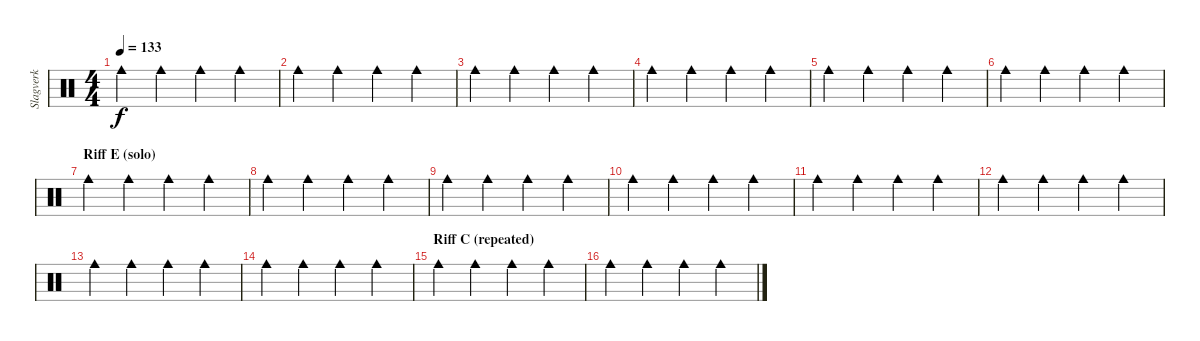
\track ("Slagverk" "Slagverk") {instrument percussion}
\staff {score}
\articulation defaults
\ts (4 4)
\tempo 133
\clef neutral
\ks c "Cowbell medium (hit)".4{dy f} "Cowbell medium (hit)".4 "Cowbell medium (hit)".4 "Cowbell medium (hit)".4
|
"Cowbell medium (hit)".4 "Cowbell medium (hit)".4 "Cowbell medium (hit)".4 "Cowbell medium (hit)".4 |
"Cowbell medium (hit)".4 "Cowbell medium (hit)".4 "Cowbell medium (hit)".4 "Cowbell medium (hit)".4 |
"Cowbell medium (hit)".4 "Cowbell medium (hit)".4 "Cowbell medium (hit)".4 "Cowbell medium (hit)".4 |
"Cowbell medium (hit)".4 "Cowbell medium (hit)".4 "Cowbell medium (hit)".4 "Cowbell medium (hit)".4 |
"Cowbell medium (hit)".4 "Cowbell medium (hit)".4 "Cowbell medium (hit)".4 "Cowbell medium (hit)".4 |
\section ("" "Riff E (solo)")
"Cowbell medium (hit)".4 "Cowbell medium (hit)".4 "Cowbell medium (hit)".4 "Cowbell medium (hit)".4 |
"Cowbell medium (hit)".4 "Cowbell medium (hit)".4 "Cowbell medium (hit)".4 "Cowbell medium (hit)".4 |
"Cowbell medium (hit)".4 "Cowbell medium (hit)".4 "Cowbell medium (hit)".4 "Cowbell medium (hit)".4 |
"Cowbell medium (hit)".4 "Cowbell medium (hit)".4 "Cowbell medium (hit)".4 "Cowbell medium (hit)".4 |
"Cowbell medium (hit)".4 "Cowbell medium (hit)".4 "Cowbell medium (hit)".4 "Cowbell medium (hit)".4 |
"Cowbell medium (hit)".4 "Cowbell medium (hit)".4 "Cowbell medium (hit)".4 "Cowbell medium (hit)".4 |
"Cowbell medium (hit)".4 "Cowbell medium (hit)".4 "Cowbell medium (hit)".4 "Cowbell medium (hit)".4 |
"Cowbell medium (hit)".4 "Cowbell medium (hit)".4 "Cowbell medium (hit)".4 "Cowbell medium (hit)".4 |
\section ("" "Riff C (repeated)")
"Cowbell medium (hit)".4 "Cowbell medium (hit)".4 "Cowbell medium (hit)".4 "Cowbell medium (hit)".4 |
"Cowbell medium (hit)".4 "Cowbell medium (hit)".4 "Cowbell medium (hit)".4 "Cowbell medium (hit)".4
